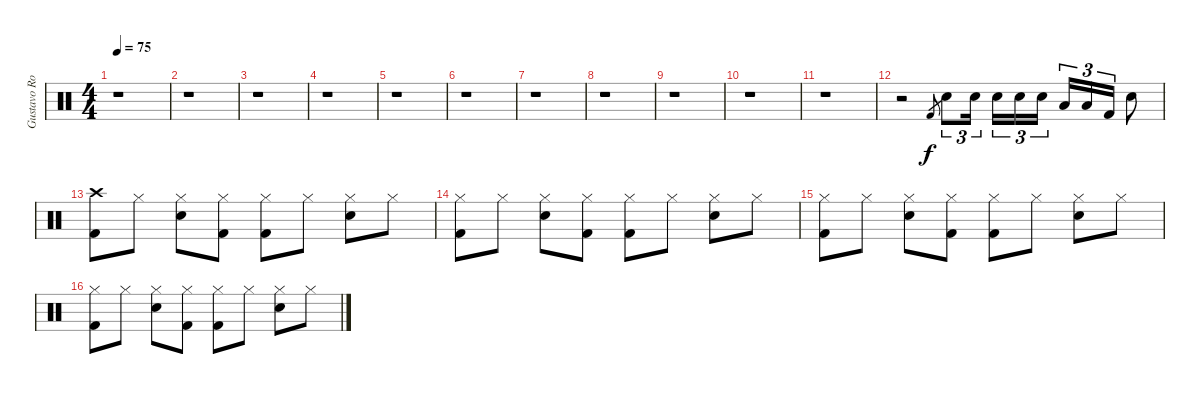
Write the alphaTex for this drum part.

\track ("Gustavo Rowek" "Gustavo Ro") {instrument percussion}
\staff {score}
\articulation defaults
\ts (4 4)
\tempo 75
\clef neutral
\ks c
r.1{dy f} |
r.1 |
r.1 |
r.1 |
r.1 |
r.1 |
r.1 |
r.1 |
r.1 |
r.1 |
r.1 |
r.2 "Kick (hit) 2".8{gr} "Snare (hit) 2".8{tu (3 2)} "Snare (hit) 2".16{tu (3 2)} "Snare (hit) 2".16{tu (3 2)} "Snare (hit) 2".16{tu (3 2)} "Snare (hit) 2".16{tu (3 2)} "Low Tom (hit)".16{tu (3 2)} "Low Tom (hit)".16{tu (3 2)} "Kick (hit) 2".16{tu (3 2)} "Snare (hit) 2".8 |
("Kick (hit) 2" "Crash high (hit)").8 "Hi-Hat (closed)".8 ("Snare (hit) 2" "Hi-Hat (closed)").8 ("Kick (hit) 2" "Hi-Hat (closed)").8 ("Kick (hit) 2" "Hi-Hat (closed)").8 "Hi-Hat (closed)".8 ("Snare (hit) 2" "Hi-Hat (closed)").8 "Hi-Hat (closed)".8 |
("Kick (hit) 2" "Hi-Hat (closed)").8 "Hi-Hat (closed)".8 ("Snare (hit) 2" "Hi-Hat (closed)").8 ("Kick (hit) 2" "Hi-Hat (closed)").8 ("Kick (hit) 2" "Hi-Hat (closed)").8 "Hi-Hat (closed)".8 ("Snare (hit) 2" "Hi-Hat (closed)").8 "Hi-Hat (closed)".8 |
("Kick (hit) 2" "Hi-Hat (closed)").8 "Hi-Hat (closed)".8 ("Snare (hit) 2" "Hi-Hat (closed)").8 ("Kick (hit) 2" "Hi-Hat (closed)").8 ("Kick (hit) 2" "Hi-Hat (closed)").8 "Hi-Hat (closed)".8 ("Snare (hit) 2" "Hi-Hat (closed)").8 "Hi-Hat (closed)".8 |
("Kick (hit) 2" "Hi-Hat (closed)").8 "Hi-Hat (closed)".8 ("Snare (hit) 2" "Hi-Hat (closed)").8 ("Kick (hit) 2" "Hi-Hat (closed)").8 ("Kick (hit) 2" "Hi-Hat (closed)").8 "Hi-Hat (closed)".8 ("Snare (hit) 2" "Hi-Hat (closed)").8 "Hi-Hat (closed)".8
